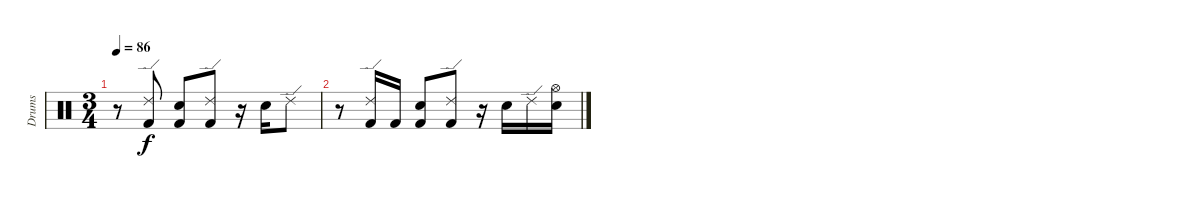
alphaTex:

\track ("Drums" "Drums") {instrument percussion}
\staff {score}
\articulation defaults
\ts (3 4)
\tempo 86
\clef neutral
\ks c
r.8{dy f} ("Ride (edge) 2" "Kick (hit) 2").8 ("Electric Snare (hit)" "Kick (hit) 2").8 ("Ride (edge) 2" "Kick (hit) 2").8 r.16 "Electric Snare (hit)".16 "Ride (edge) 2".8 |
r.8 ("Ride (edge) 2" "Kick (hit) 2").16 "Kick (hit) 2".16 ("Electric Snare (hit)" "Kick (hit) 2").8 ("Ride (edge) 2" "Kick (hit) 2").8 r.16 "Electric Snare (hit)".16 "Ride (edge) 2".16 ("Hi-Hat (open)" "Electric Snare (hit)").16
